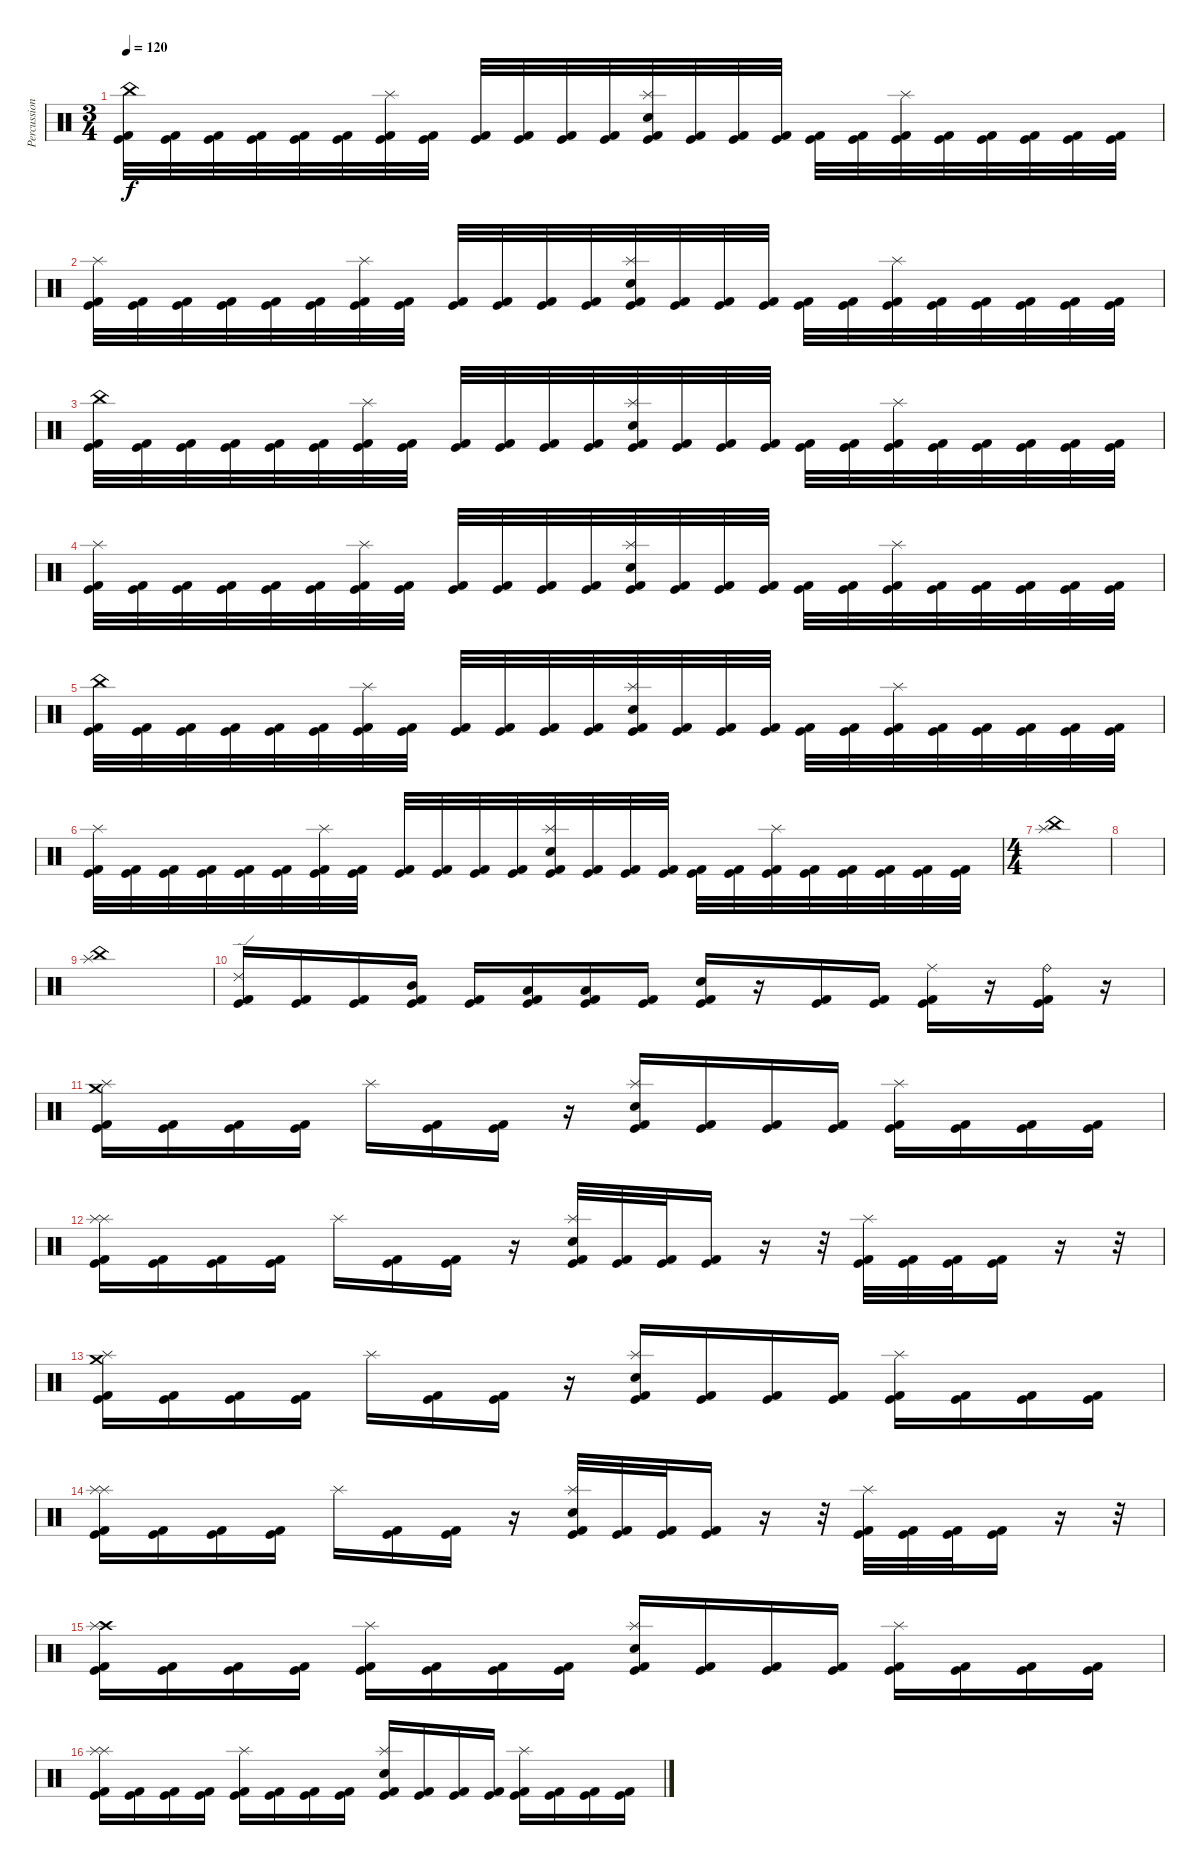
\track ("Percussion" "Percussion") {instrument percussion}
\staff {score}
\articulation defaults
\ts (3 4)
\tempo 120
\clef neutral
\ks c
("China (hit)" "Kick (hit)" "Kick (hit) 2").32{dy f} ("Kick (hit)" "Kick (hit) 2").32 ("Kick (hit)" "Kick (hit) 2").32 ("Kick (hit)" "Kick (hit) 2").32 ("Kick (hit)" "Kick (hit) 2").32 ("Kick (hit)" "Kick (hit) 2").32 ("Splash (hit)" "Kick (hit)" "Kick (hit) 2").32 ("Kick (hit)" "Kick (hit) 2").32 ("Kick (hit)" "Kick (hit) 2").32 ("Kick (hit)" "Kick (hit) 2").32 ("Kick (hit)" "Kick (hit) 2").32 ("Kick (hit)" "Kick (hit) 2").32 ("Splash (hit)" "Electric Snare (hit)" "Kick (hit)" "Kick (hit) 2").32 ("Kick (hit)" "Kick (hit) 2").32 ("Kick (hit)" "Kick (hit) 2").32 ("Kick (hit)" "Kick (hit) 2").32 ("Kick (hit)" "Kick (hit) 2").32 ("Kick (hit)" "Kick (hit) 2").32 ("Splash (hit)" "Kick (hit)" "Kick (hit) 2").32 ("Kick (hit)" "Kick (hit) 2").32 ("Kick (hit)" "Kick (hit) 2").32 ("Kick (hit)" "Kick (hit) 2").32 ("Kick (hit)" "Kick (hit) 2").32 ("Kick (hit)" "Kick (hit) 2").32 |
("Splash (hit)" "Kick (hit)" "Kick (hit) 2").32 ("Kick (hit)" "Kick (hit) 2").32 ("Kick (hit)" "Kick (hit) 2").32 ("Kick (hit)" "Kick (hit) 2").32 ("Kick (hit)" "Kick (hit) 2").32 ("Kick (hit)" "Kick (hit) 2").32 ("Splash (hit)" "Kick (hit)" "Kick (hit) 2").32 ("Kick (hit)" "Kick (hit) 2").32 ("Kick (hit)" "Kick (hit) 2").32 ("Kick (hit)" "Kick (hit) 2").32 ("Kick (hit)" "Kick (hit) 2").32 ("Kick (hit)" "Kick (hit) 2").32 ("Splash (hit)" "Electric Snare (hit)" "Kick (hit)" "Kick (hit) 2").32 ("Kick (hit)" "Kick (hit) 2").32 ("Kick (hit)" "Kick (hit) 2").32 ("Kick (hit)" "Kick (hit) 2").32 ("Kick (hit)" "Kick (hit) 2").32 ("Kick (hit)" "Kick (hit) 2").32 ("Splash (hit)" "Kick (hit)" "Kick (hit) 2").32 ("Kick (hit)" "Kick (hit) 2").32 ("Kick (hit)" "Kick (hit) 2").32 ("Kick (hit)" "Kick (hit) 2").32 ("Kick (hit)" "Kick (hit) 2").32 ("Kick (hit)" "Kick (hit) 2").32 |
("China (hit)" "Kick (hit)" "Kick (hit) 2").32 ("Kick (hit)" "Kick (hit) 2").32 ("Kick (hit)" "Kick (hit) 2").32 ("Kick (hit)" "Kick (hit) 2").32 ("Kick (hit)" "Kick (hit) 2").32 ("Kick (hit)" "Kick (hit) 2").32 ("Splash (hit)" "Kick (hit)" "Kick (hit) 2").32 ("Kick (hit)" "Kick (hit) 2").32 ("Kick (hit)" "Kick (hit) 2").32 ("Kick (hit)" "Kick (hit) 2").32 ("Kick (hit)" "Kick (hit) 2").32 ("Kick (hit)" "Kick (hit) 2").32 ("Splash (hit)" "Electric Snare (hit)" "Kick (hit)" "Kick (hit) 2").32 ("Kick (hit)" "Kick (hit) 2").32 ("Kick (hit)" "Kick (hit) 2").32 ("Kick (hit)" "Kick (hit) 2").32 ("Kick (hit)" "Kick (hit) 2").32 ("Kick (hit)" "Kick (hit) 2").32 ("Splash (hit)" "Kick (hit)" "Kick (hit) 2").32 ("Kick (hit)" "Kick (hit) 2").32 ("Kick (hit)" "Kick (hit) 2").32 ("Kick (hit)" "Kick (hit) 2").32 ("Kick (hit)" "Kick (hit) 2").32 ("Kick (hit)" "Kick (hit) 2").32 |
("Splash (hit)" "Kick (hit)" "Kick (hit) 2").32 ("Kick (hit)" "Kick (hit) 2").32 ("Kick (hit)" "Kick (hit) 2").32 ("Kick (hit)" "Kick (hit) 2").32 ("Kick (hit)" "Kick (hit) 2").32 ("Kick (hit)" "Kick (hit) 2").32 ("Splash (hit)" "Kick (hit)" "Kick (hit) 2").32 ("Kick (hit)" "Kick (hit) 2").32 ("Kick (hit)" "Kick (hit) 2").32 ("Kick (hit)" "Kick (hit) 2").32 ("Kick (hit)" "Kick (hit) 2").32 ("Kick (hit)" "Kick (hit) 2").32 ("Splash (hit)" "Electric Snare (hit)" "Kick (hit)" "Kick (hit) 2").32 ("Kick (hit)" "Kick (hit) 2").32 ("Kick (hit)" "Kick (hit) 2").32 ("Kick (hit)" "Kick (hit) 2").32 ("Kick (hit)" "Kick (hit) 2").32 ("Kick (hit)" "Kick (hit) 2").32 ("Splash (hit)" "Kick (hit)" "Kick (hit) 2").32 ("Kick (hit)" "Kick (hit) 2").32 ("Kick (hit)" "Kick (hit) 2").32 ("Kick (hit)" "Kick (hit) 2").32 ("Kick (hit)" "Kick (hit) 2").32 ("Kick (hit)" "Kick (hit) 2").32 |
("China (hit)" "Kick (hit)" "Kick (hit) 2").32 ("Kick (hit)" "Kick (hit) 2").32 ("Kick (hit)" "Kick (hit) 2").32 ("Kick (hit)" "Kick (hit) 2").32 ("Kick (hit)" "Kick (hit) 2").32 ("Kick (hit)" "Kick (hit) 2").32 ("Splash (hit)" "Kick (hit)" "Kick (hit) 2").32 ("Kick (hit)" "Kick (hit) 2").32 ("Kick (hit)" "Kick (hit) 2").32 ("Kick (hit)" "Kick (hit) 2").32 ("Kick (hit)" "Kick (hit) 2").32 ("Kick (hit)" "Kick (hit) 2").32 ("Splash (hit)" "Electric Snare (hit)" "Kick (hit)" "Kick (hit) 2").32 ("Kick (hit)" "Kick (hit) 2").32 ("Kick (hit)" "Kick (hit) 2").32 ("Kick (hit)" "Kick (hit) 2").32 ("Kick (hit)" "Kick (hit) 2").32 ("Kick (hit)" "Kick (hit) 2").32 ("Splash (hit)" "Kick (hit)" "Kick (hit) 2").32 ("Kick (hit)" "Kick (hit) 2").32 ("Kick (hit)" "Kick (hit) 2").32 ("Kick (hit)" "Kick (hit) 2").32 ("Kick (hit)" "Kick (hit) 2").32 ("Kick (hit)" "Kick (hit) 2").32 |
("Splash (hit)" "Kick (hit)" "Kick (hit) 2").32 ("Kick (hit)" "Kick (hit) 2").32 ("Kick (hit)" "Kick (hit) 2").32 ("Kick (hit)" "Kick (hit) 2").32 ("Kick (hit)" "Kick (hit) 2").32 ("Kick (hit)" "Kick (hit) 2").32 ("Splash (hit)" "Kick (hit)" "Kick (hit) 2").32 ("Kick (hit)" "Kick (hit) 2").32 ("Kick (hit)" "Kick (hit) 2").32 ("Kick (hit)" "Kick (hit) 2").32 ("Kick (hit)" "Kick (hit) 2").32 ("Kick (hit)" "Kick (hit) 2").32 ("Splash (hit)" "Electric Snare (hit)" "Kick (hit)" "Kick (hit) 2").32 ("Kick (hit)" "Kick (hit) 2").32 ("Kick (hit)" "Kick (hit) 2").32 ("Kick (hit)" "Kick (hit) 2").32 ("Kick (hit)" "Kick (hit) 2").32 ("Kick (hit)" "Kick (hit) 2").32 ("Splash (hit)" "Kick (hit)" "Kick (hit) 2").32 ("Kick (hit)" "Kick (hit) 2").32 ("Kick (hit)" "Kick (hit) 2").32 ("Kick (hit)" "Kick (hit) 2").32 ("Kick (hit)" "Kick (hit) 2").32 ("Kick (hit)" "Kick (hit) 2").32 |
\ts (4 4)
("Splash (hit)" "China (hit)").1 |
|
("China (hit)" "Splash (hit)").1 |
("Kick (hit)" "Ride (edge) 2" "Kick (hit) 2").16 ("Kick (hit)" "Kick (hit) 2").16 ("Kick (hit)" "Kick (hit) 2").16 ("Kick (hit)" "Mid Tom (hit)" "Kick (hit) 2").16 ("Kick (hit)" "Kick (hit) 2").16 ("Kick (hit)" "Low Tom (hit)" "Kick (hit) 2").16 ("Kick (hit)" "Low Tom (hit)" "Kick (hit) 2").16 ("Kick (hit)" "Kick (hit) 2").16 ("Kick (hit)" "Electric Snare (hit)" "Kick (hit) 2").16 r.16 ("Kick (hit)" "Kick (hit) 2").16 ("Kick (hit)" "Kick (hit) 2").16 ("Kick (hit)" "Ride (middle)" "Kick (hit) 2").16 r.16 ("Kick (hit)" "Ride (bell)" "Kick (hit) 2").16 r.16 |
("Crash medium (hit)" "Splash (hit)" "Kick (hit)" "Kick (hit) 2").16 ("Kick (hit)" "Kick (hit) 2").16 ("Kick (hit)" "Kick (hit) 2").16 ("Kick (hit)" "Kick (hit) 2").16 "Splash (hit)".16 ("Kick (hit)" "Kick (hit) 2").16 ("Kick (hit)" "Kick (hit) 2").16 r.16 ("Splash (hit)" "Electric Snare (hit)" "Kick (hit)" "Kick (hit) 2").16 ("Kick (hit)" "Kick (hit) 2").16 ("Kick (hit)" "Kick (hit) 2").16 ("Kick (hit)" "Kick (hit) 2").16 ("Splash (hit)" "Kick (hit)" "Kick (hit) 2").16 ("Kick (hit)" "Kick (hit) 2").16 ("Kick (hit)" "Kick (hit) 2").16 ("Kick (hit)" "Kick (hit) 2").16 |
("Splash (hit)" "Splash (hit)" "Kick (hit)" "Kick (hit) 2").16 ("Kick (hit)" "Kick (hit) 2").16 ("Kick (hit)" "Kick (hit) 2").16 ("Kick (hit)" "Kick (hit) 2").16 "Splash (hit)".16 ("Kick (hit)" "Kick (hit) 2").16 ("Kick (hit)" "Kick (hit) 2").16 r.16 ("Splash (hit)" "Electric Snare (hit)" "Kick (hit)" "Kick (hit) 2").32 ("Kick (hit)" "Kick (hit) 2").32 ("Kick (hit)" "Kick (hit) 2").32 ("Kick (hit)" "Kick (hit) 2").16 r.16 r.32 ("Splash (hit)" "Kick (hit)" "Kick (hit) 2").32 ("Kick (hit)" "Kick (hit) 2").32 ("Kick (hit)" "Kick (hit) 2").32 ("Kick (hit)" "Kick (hit) 2").16 r.16 r.32 |
("Crash medium (hit)" "Splash (hit)" "Kick (hit)" "Kick (hit) 2").16 ("Kick (hit)" "Kick (hit) 2").16 ("Kick (hit)" "Kick (hit) 2").16 ("Kick (hit)" "Kick (hit) 2").16 "Splash (hit)".16 ("Kick (hit)" "Kick (hit) 2").16 ("Kick (hit)" "Kick (hit) 2").16 r.16 ("Splash (hit)" "Electric Snare (hit)" "Kick (hit)" "Kick (hit) 2").16 ("Kick (hit)" "Kick (hit) 2").16 ("Kick (hit)" "Kick (hit) 2").16 ("Kick (hit)" "Kick (hit) 2").16 ("Splash (hit)" "Kick (hit)" "Kick (hit) 2").16 ("Kick (hit)" "Kick (hit) 2").16 ("Kick (hit)" "Kick (hit) 2").16 ("Kick (hit)" "Kick (hit) 2").16 |
("Splash (hit)" "Splash (hit)" "Kick (hit)" "Kick (hit) 2").16 ("Kick (hit)" "Kick (hit) 2").16 ("Kick (hit)" "Kick (hit) 2").16 ("Kick (hit)" "Kick (hit) 2").16 "Splash (hit)".16 ("Kick (hit)" "Kick (hit) 2").16 ("Kick (hit)" "Kick (hit) 2").16 r.16 ("Splash (hit)" "Electric Snare (hit)" "Kick (hit)" "Kick (hit) 2").32 ("Kick (hit)" "Kick (hit) 2").32 ("Kick (hit)" "Kick (hit) 2").32 ("Kick (hit)" "Kick (hit) 2").16 r.16 r.32 ("Splash (hit)" "Kick (hit)" "Kick (hit) 2").32 ("Kick (hit)" "Kick (hit) 2").32 ("Kick (hit)" "Kick (hit) 2").32 ("Kick (hit)" "Kick (hit) 2").16 r.16 r.32 |
("Crash high (hit)" "Splash (hit)" "Kick (hit)" "Kick (hit) 2").16 ("Kick (hit)" "Kick (hit) 2").16 ("Kick (hit)" "Kick (hit) 2").16 ("Kick (hit)" "Kick (hit) 2").16 ("Splash (hit)" "Kick (hit)" "Kick (hit) 2").16 ("Kick (hit)" "Kick (hit) 2").16 ("Kick (hit)" "Kick (hit) 2").16 ("Kick (hit)" "Kick (hit) 2").16 ("Splash (hit)" "Kick (hit)" "Electric Snare (hit)" "Kick (hit) 2").16 ("Kick (hit)" "Kick (hit) 2").16 ("Kick (hit)" "Kick (hit) 2").16 ("Kick (hit)" "Kick (hit) 2").16 ("Splash (hit)" "Kick (hit)" "Kick (hit) 2").16 ("Kick (hit)" "Kick (hit) 2").16 ("Kick (hit)" "Kick (hit) 2").16 ("Kick (hit)" "Kick (hit) 2").16 |
("Splash (hit)" "Splash (hit)" "Kick (hit)" "Kick (hit) 2").16 ("Kick (hit)" "Kick (hit) 2").16 ("Kick (hit)" "Kick (hit) 2").16 ("Kick (hit)" "Kick (hit) 2").16 ("Splash (hit)" "Kick (hit)" "Kick (hit) 2").16 ("Kick (hit)" "Kick (hit) 2").16 ("Kick (hit)" "Kick (hit) 2").16 ("Kick (hit)" "Kick (hit) 2").16 ("Splash (hit)" "Kick (hit)" "Electric Snare (hit)" "Kick (hit) 2").16 ("Kick (hit)" "Kick (hit) 2").16 ("Kick (hit)" "Kick (hit) 2").16 ("Kick (hit)" "Kick (hit) 2").16 ("Splash (hit)" "Kick (hit)" "Kick (hit) 2").16 ("Kick (hit)" "Kick (hit) 2").16 ("Kick (hit)" "Kick (hit) 2").16 ("Kick (hit)" "Kick (hit) 2").16
